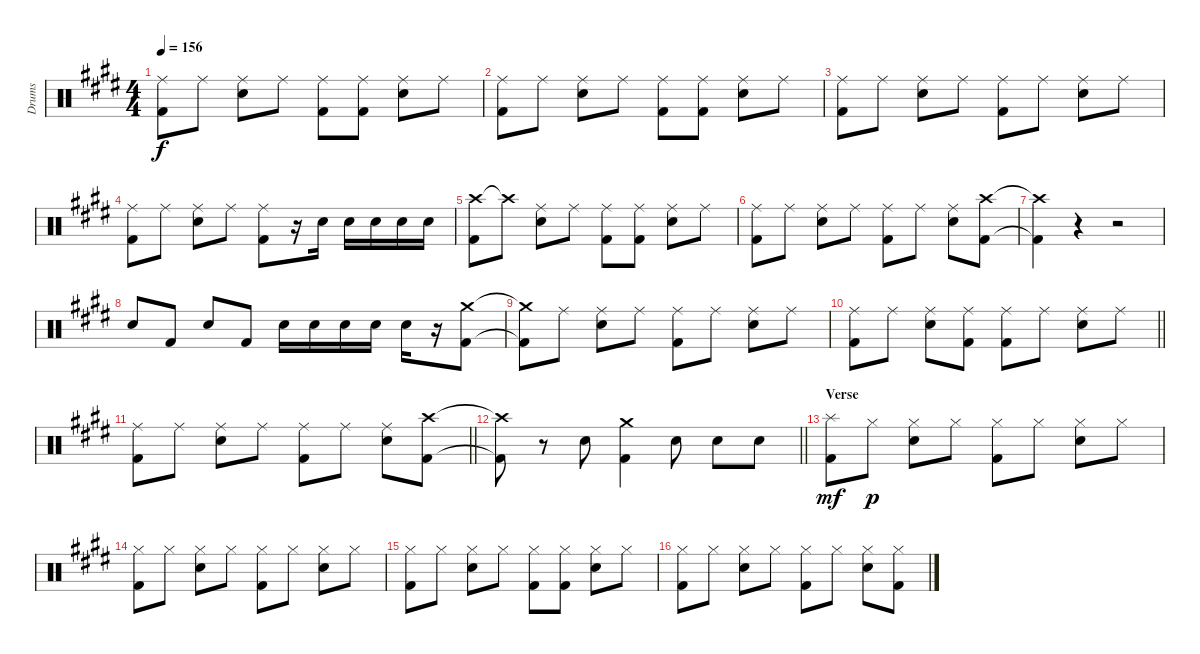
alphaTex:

\track ("Drums" "Drums") {instrument percussion}
\staff {score}
\articulation defaults
\ts (4 4)
\tempo 156
\clef neutral
\ks c#minor
("Ride (middle)" "Kick (hit) 2").8{dy f} "Ride (middle)".8 ("Ride (middle)" "Electric Snare (hit)").8 "Ride (middle)".8 ("Ride (middle)" "Kick (hit) 2").8 ("Ride (middle)" "Kick (hit) 2").8 ("Ride (middle)" "Electric Snare (hit)").8 "Ride (middle)".8 |
\ks e
("Ride (middle)" "Kick (hit) 2").8 "Ride (middle)".8 ("Ride (middle)" "Electric Snare (hit)").8 "Ride (middle)".8 ("Ride (middle)" "Kick (hit) 2").8 ("Ride (middle)" "Kick (hit) 2").8 ("Ride (middle)" "Electric Snare (hit)").8 "Ride (middle)".8 |
\ks c#minor
("Ride (middle)" "Kick (hit) 2").8 "Ride (middle)".8 ("Ride (middle)" "Electric Snare (hit)").8 "Ride (middle)".8 ("Ride (middle)" "Kick (hit) 2").8 "Ride (middle)".8 ("Ride (middle)" "Electric Snare (hit)").8 "Ride (middle)".8 |
("Ride (middle)" "Kick (hit) 2").8 "Ride (middle)".8 ("Ride (middle)" "Electric Snare (hit)").8 "Ride (middle)".8 ("Ride (middle)" "Kick (hit) 2").8 r.16 "Electric Snare (hit)".16 "Electric Snare (hit)".16 "Electric Snare (hit)".16 "Electric Snare (hit)".16 "Electric Snare (hit)".16 |
("Crash high (hit)" "Kick (hit) 2").8 "Crash high (hit)"{t}.8 ("Ride (middle)" "Electric Snare (hit)").8 "Ride (middle)".8 ("Ride (middle)" "Kick (hit) 2").8 ("Ride (middle)" "Kick (hit) 2").8 ("Ride (middle)" "Electric Snare (hit)").8 "Ride (middle)".8 |
\ks e
("Ride (middle)" "Kick (hit) 2").8 "Ride (middle)".8 ("Ride (middle)" "Electric Snare (hit)").8 "Ride (middle)".8 ("Ride (middle)" "Kick (hit) 2").8 "Ride (middle)".8 ("Ride (middle)" "Electric Snare (hit)").8 ("Crash high (hit)" "Kick (hit) 2").8 |
\ks c#minor
("Crash high (hit)"{t} "Kick (hit) 2"{t}).4 r.4 r.2 |
\ks e "Electric Snare (hit)".8 "Kick (hit) 2".8 "Electric Snare (hit)".8 "Kick (hit) 2".8 "Electric Snare (hit)".16 "Electric Snare (hit)".16 "Electric Snare (hit)".16 "Electric Snare (hit)".16 "Electric Snare (hit)".16
r.16 ("Crash medium (hit)" "Kick (hit) 2").8 |
\ks c#minor
("Crash medium (hit)"{t} "Kick (hit) 2"{t}).8 "Ride (middle)".8 ("Ride (middle)" "Electric Snare (hit)").8 "Ride (middle)".8 ("Ride (middle)" "Kick (hit) 2").8 "Ride (middle)".8 ("Ride (middle)" "Electric Snare (hit)").8 "Ride (middle)".8 |
\barLineRight lightlight
("Ride (middle)" "Kick (hit) 2").8 "Ride (middle)".8 ("Ride (middle)" "Electric Snare (hit)").8 ("Ride (middle)" "Kick (hit) 2").8 ("Ride (middle)" "Kick (hit) 2").8 "Ride (middle)".8 ("Ride (middle)" "Electric Snare (hit)").8 "Ride (middle)".8 |
\barLineRight lightlight
("Ride (middle)" "Kick (hit) 2").8 "Ride (middle)".8 ("Ride (middle)" "Electric Snare (hit)").8 "Ride (middle)".8 ("Ride (middle)" "Kick (hit) 2").8 "Ride (middle)".8 ("Ride (middle)" "Electric Snare (hit)").8 ("Crash high (hit)" "Kick (hit) 2").8 |
\barLineRight lightlight
\ks e
("Crash high (hit)"{t} "Kick (hit) 2"{t}).8 r.8 "Electric Snare (hit)".8 ("Crash medium (hit)" "Kick (hit) 2").4 "Electric Snare (hit)".8 "Electric Snare (hit)".8 "Electric Snare (hit)".8 |
\section ("" "Verse")
("Splash (hit)" "Kick (hit) 2").8{dy mf} "Hi-Hat (closed)".8{dy p} ("Hi-Hat (closed)" "Electric Snare (hit)").8 "Hi-Hat (closed)".8 ("Hi-Hat (closed)" "Kick (hit) 2").8 "Hi-Hat (closed)".8 ("Hi-Hat (closed)" "Electric Snare (hit)").8 "Hi-Hat (closed)".8 |
\ks c#minor
("Hi-Hat (closed)" "Kick (hit) 2").8 "Hi-Hat (closed)".8 ("Hi-Hat (closed)" "Electric Snare (hit)").8 "Hi-Hat (closed)".8 ("Hi-Hat (closed)" "Kick (hit) 2").8 "Hi-Hat (closed)".8 ("Hi-Hat (closed)" "Electric Snare (hit)").8 "Hi-Hat (closed)".8 |
("Hi-Hat (closed)" "Kick (hit) 2").8 "Hi-Hat (closed)".8 ("Hi-Hat (closed)" "Electric Snare (hit)").8 "Hi-Hat (closed)".8 ("Hi-Hat (closed)" "Kick (hit) 2").8 ("Hi-Hat (closed)" "Kick (hit) 2").8 ("Hi-Hat (closed)" "Electric Snare (hit)").8 "Hi-Hat (closed)".8 |
("Hi-Hat (closed)" "Kick (hit) 2").8 "Hi-Hat (closed)".8 ("Hi-Hat (closed)" "Electric Snare (hit)").8 "Hi-Hat (closed)".8 ("Hi-Hat (closed)" "Kick (hit) 2").8 "Hi-Hat (closed)".8 ("Hi-Hat (closed)" "Electric Snare (hit)").8 ("Hi-Hat (closed)" "Kick (hit) 2").8
